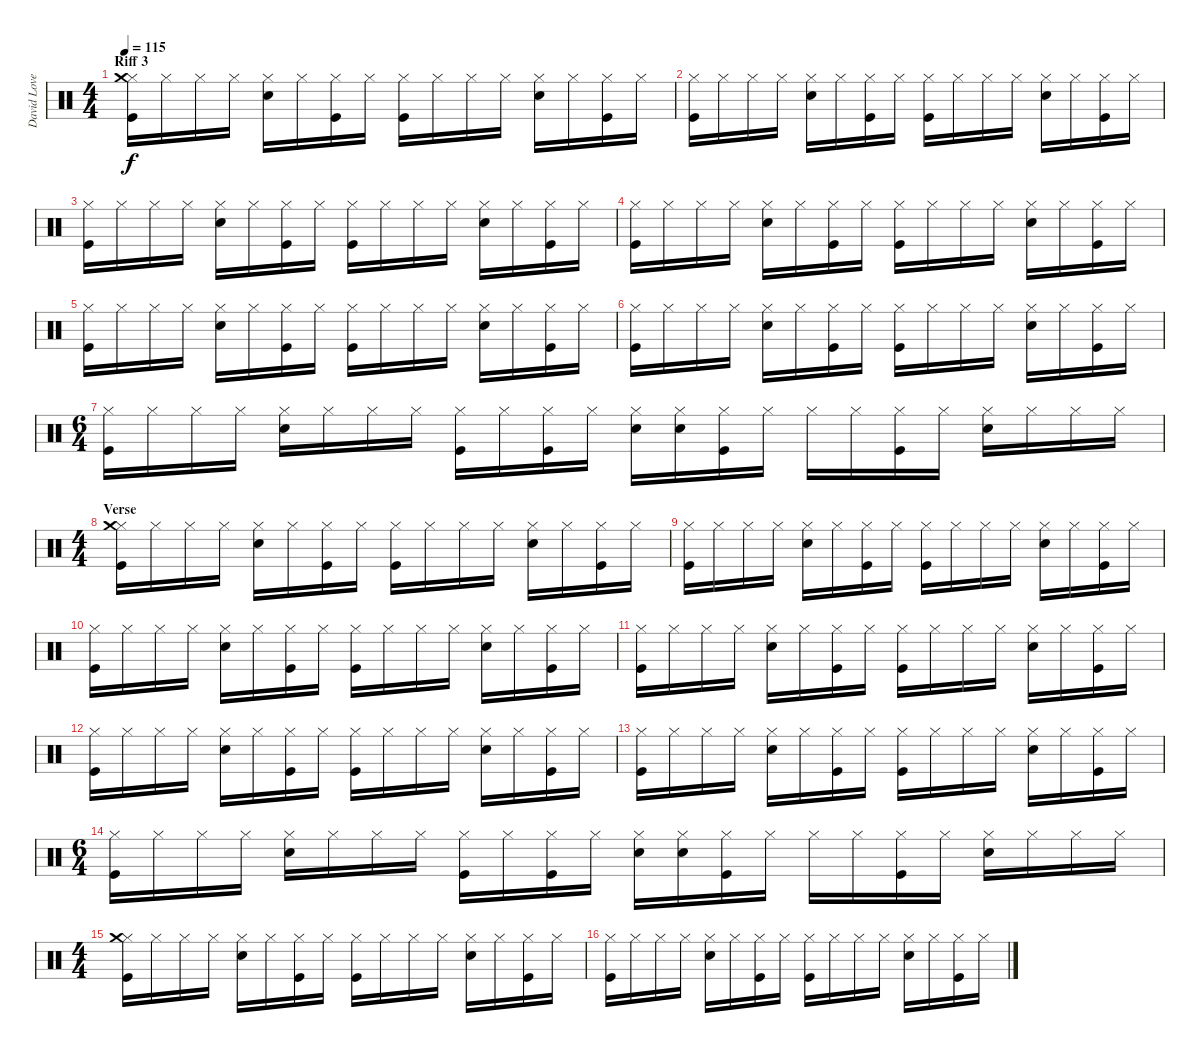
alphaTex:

\track ("David Lovering" "David Love") {instrument percussion}
\staff {score}
\articulation defaults
\ts (4 4)
\section ("" "Riff 3")
\tempo 115
\clef neutral
\ks c
("Hi-Hat (closed)" "Crash medium (hit)" "Kick (hit)").16{dy f} "Hi-Hat (closed)".16 "Hi-Hat (closed)".16 "Hi-Hat (closed)".16 ("Hi-Hat (closed)" "Snare (hit) 2").16 "Hi-Hat (closed)".16 ("Hi-Hat (closed)" "Kick (hit)").16 "Hi-Hat (closed)".16 ("Hi-Hat (closed)" "Kick (hit)").16 "Hi-Hat (closed)".16 "Hi-Hat (closed)".16 "Hi-Hat (closed)".16 ("Hi-Hat (closed)" "Snare (hit) 2").16 "Hi-Hat (closed)".16 ("Hi-Hat (closed)" "Kick (hit)").16 "Hi-Hat (closed)".16 |
("Hi-Hat (closed)" "Kick (hit)").16 "Hi-Hat (closed)".16 "Hi-Hat (closed)".16 "Hi-Hat (closed)".16 ("Hi-Hat (closed)" "Snare (hit) 2").16 "Hi-Hat (closed)".16 ("Hi-Hat (closed)" "Kick (hit)").16 "Hi-Hat (closed)".16 ("Hi-Hat (closed)" "Kick (hit)").16 "Hi-Hat (closed)".16 "Hi-Hat (closed)".16 "Hi-Hat (closed)".16 ("Hi-Hat (closed)" "Snare (hit) 2").16 "Hi-Hat (closed)".16 ("Hi-Hat (closed)" "Kick (hit)").16 "Hi-Hat (closed)".16 |
("Hi-Hat (closed)" "Kick (hit)").16 "Hi-Hat (closed)".16 "Hi-Hat (closed)".16 "Hi-Hat (closed)".16 ("Hi-Hat (closed)" "Snare (hit) 2").16 "Hi-Hat (closed)".16 ("Hi-Hat (closed)" "Kick (hit)").16 "Hi-Hat (closed)".16 ("Hi-Hat (closed)" "Kick (hit)").16 "Hi-Hat (closed)".16 "Hi-Hat (closed)".16 "Hi-Hat (closed)".16 ("Hi-Hat (closed)" "Snare (hit) 2").16 "Hi-Hat (closed)".16 ("Hi-Hat (closed)" "Kick (hit)").16 "Hi-Hat (closed)".16 |
("Hi-Hat (closed)" "Kick (hit)").16 "Hi-Hat (closed)".16 "Hi-Hat (closed)".16 "Hi-Hat (closed)".16 ("Hi-Hat (closed)" "Snare (hit) 2").16 "Hi-Hat (closed)".16 ("Hi-Hat (closed)" "Kick (hit)").16 "Hi-Hat (closed)".16 ("Hi-Hat (closed)" "Kick (hit)").16 "Hi-Hat (closed)".16 "Hi-Hat (closed)".16 "Hi-Hat (closed)".16 ("Hi-Hat (closed)" "Snare (hit) 2").16 "Hi-Hat (closed)".16 ("Hi-Hat (closed)" "Kick (hit)").16 "Hi-Hat (closed)".16 |
("Hi-Hat (closed)" "Kick (hit)").16 "Hi-Hat (closed)".16 "Hi-Hat (closed)".16 "Hi-Hat (closed)".16 ("Hi-Hat (closed)" "Snare (hit) 2").16 "Hi-Hat (closed)".16 ("Hi-Hat (closed)" "Kick (hit)").16 "Hi-Hat (closed)".16 ("Hi-Hat (closed)" "Kick (hit)").16 "Hi-Hat (closed)".16 "Hi-Hat (closed)".16 "Hi-Hat (closed)".16 ("Hi-Hat (closed)" "Snare (hit) 2").16 "Hi-Hat (closed)".16 ("Hi-Hat (closed)" "Kick (hit)").16 "Hi-Hat (closed)".16 |
("Hi-Hat (closed)" "Kick (hit)").16 "Hi-Hat (closed)".16 "Hi-Hat (closed)".16 "Hi-Hat (closed)".16 ("Hi-Hat (closed)" "Snare (hit) 2").16 "Hi-Hat (closed)".16 ("Hi-Hat (closed)" "Kick (hit)").16 "Hi-Hat (closed)".16 ("Hi-Hat (closed)" "Kick (hit)").16 "Hi-Hat (closed)".16 "Hi-Hat (closed)".16 "Hi-Hat (closed)".16 ("Hi-Hat (closed)" "Snare (hit) 2").16 "Hi-Hat (closed)".16 ("Hi-Hat (closed)" "Kick (hit)").16 "Hi-Hat (closed)".16 |
\ts (6 4)
("Hi-Hat (closed)" "Kick (hit)").16 "Hi-Hat (closed)".16 "Hi-Hat (closed)".16 "Hi-Hat (closed)".16 ("Hi-Hat (closed)" "Snare (hit) 2").16 "Hi-Hat (closed)".16 "Hi-Hat (closed)".16 "Hi-Hat (closed)".16 ("Hi-Hat (closed)" "Kick (hit)").16 "Hi-Hat (closed)".16 ("Hi-Hat (closed)" "Kick (hit)").16 "Hi-Hat (closed)".16 ("Hi-Hat (closed)" "Snare (hit) 2").16 ("Hi-Hat (closed)" "Snare (hit) 2").16 ("Hi-Hat (closed)" "Kick (hit)").16 "Hi-Hat (closed)".16 "Hi-Hat (closed)".16 "Hi-Hat (closed)".16 ("Hi-Hat (closed)" "Kick (hit)").16 "Hi-Hat (closed)".16 ("Hi-Hat (closed)" "Snare (hit) 2").16 "Hi-Hat (closed)".16 "Hi-Hat (closed)".16 "Hi-Hat (closed)".16 |
\ts (4 4)
\section ("" "Verse")
("Hi-Hat (closed)" "Crash medium (hit)" "Kick (hit)").16 "Hi-Hat (closed)".16 "Hi-Hat (closed)".16 "Hi-Hat (closed)".16 ("Hi-Hat (closed)" "Snare (hit) 2").16 "Hi-Hat (closed)".16 ("Hi-Hat (closed)" "Kick (hit)").16 "Hi-Hat (closed)".16 ("Hi-Hat (closed)" "Kick (hit)").16 "Hi-Hat (closed)".16 "Hi-Hat (closed)".16 "Hi-Hat (closed)".16 ("Hi-Hat (closed)" "Snare (hit) 2").16 "Hi-Hat (closed)".16 ("Hi-Hat (closed)" "Kick (hit)").16 "Hi-Hat (closed)".16 |
("Hi-Hat (closed)" "Kick (hit)").16 "Hi-Hat (closed)".16 "Hi-Hat (closed)".16 "Hi-Hat (closed)".16 ("Hi-Hat (closed)" "Snare (hit) 2").16 "Hi-Hat (closed)".16 ("Hi-Hat (closed)" "Kick (hit)").16 "Hi-Hat (closed)".16 ("Hi-Hat (closed)" "Kick (hit)").16 "Hi-Hat (closed)".16 "Hi-Hat (closed)".16 "Hi-Hat (closed)".16 ("Hi-Hat (closed)" "Snare (hit) 2").16 "Hi-Hat (closed)".16 ("Hi-Hat (closed)" "Kick (hit)").16 "Hi-Hat (closed)".16 |
("Hi-Hat (closed)" "Kick (hit)").16 "Hi-Hat (closed)".16 "Hi-Hat (closed)".16 "Hi-Hat (closed)".16 ("Hi-Hat (closed)" "Snare (hit) 2").16 "Hi-Hat (closed)".16 ("Hi-Hat (closed)" "Kick (hit)").16 "Hi-Hat (closed)".16 ("Hi-Hat (closed)" "Kick (hit)").16 "Hi-Hat (closed)".16 "Hi-Hat (closed)".16 "Hi-Hat (closed)".16 ("Hi-Hat (closed)" "Snare (hit) 2").16 "Hi-Hat (closed)".16 ("Hi-Hat (closed)" "Kick (hit)").16 "Hi-Hat (closed)".16 |
("Hi-Hat (closed)" "Kick (hit)").16 "Hi-Hat (closed)".16 "Hi-Hat (closed)".16 "Hi-Hat (closed)".16 ("Hi-Hat (closed)" "Snare (hit) 2").16 "Hi-Hat (closed)".16 ("Hi-Hat (closed)" "Kick (hit)").16 "Hi-Hat (closed)".16 ("Hi-Hat (closed)" "Kick (hit)").16 "Hi-Hat (closed)".16 "Hi-Hat (closed)".16 "Hi-Hat (closed)".16 ("Hi-Hat (closed)" "Snare (hit) 2").16 "Hi-Hat (closed)".16 ("Hi-Hat (closed)" "Kick (hit)").16 "Hi-Hat (closed)".16 |
("Hi-Hat (closed)" "Kick (hit)").16 "Hi-Hat (closed)".16 "Hi-Hat (closed)".16 "Hi-Hat (closed)".16 ("Hi-Hat (closed)" "Snare (hit) 2").16 "Hi-Hat (closed)".16 ("Hi-Hat (closed)" "Kick (hit)").16 "Hi-Hat (closed)".16 ("Hi-Hat (closed)" "Kick (hit)").16 "Hi-Hat (closed)".16 "Hi-Hat (closed)".16 "Hi-Hat (closed)".16 ("Hi-Hat (closed)" "Snare (hit) 2").16 "Hi-Hat (closed)".16 ("Hi-Hat (closed)" "Kick (hit)").16 "Hi-Hat (closed)".16 |
("Hi-Hat (closed)" "Kick (hit)").16 "Hi-Hat (closed)".16 "Hi-Hat (closed)".16 "Hi-Hat (closed)".16 ("Hi-Hat (closed)" "Snare (hit) 2").16 "Hi-Hat (closed)".16 ("Hi-Hat (closed)" "Kick (hit)").16 "Hi-Hat (closed)".16 ("Hi-Hat (closed)" "Kick (hit)").16 "Hi-Hat (closed)".16 "Hi-Hat (closed)".16 "Hi-Hat (closed)".16 ("Hi-Hat (closed)" "Snare (hit) 2").16 "Hi-Hat (closed)".16 ("Hi-Hat (closed)" "Kick (hit)").16 "Hi-Hat (closed)".16 |
\ts (6 4)
("Hi-Hat (closed)" "Kick (hit)").16 "Hi-Hat (closed)".16 "Hi-Hat (closed)".16 "Hi-Hat (closed)".16 ("Hi-Hat (closed)" "Snare (hit) 2").16 "Hi-Hat (closed)".16 "Hi-Hat (closed)".16 "Hi-Hat (closed)".16 ("Hi-Hat (closed)" "Kick (hit)").16 "Hi-Hat (closed)".16 ("Hi-Hat (closed)" "Kick (hit)").16 "Hi-Hat (closed)".16 ("Hi-Hat (closed)" "Snare (hit) 2").16 ("Hi-Hat (closed)" "Snare (hit) 2").16 ("Hi-Hat (closed)" "Kick (hit)").16 "Hi-Hat (closed)".16 "Hi-Hat (closed)".16 "Hi-Hat (closed)".16 ("Hi-Hat (closed)" "Kick (hit)").16 "Hi-Hat (closed)".16 ("Hi-Hat (closed)" "Snare (hit) 2").16 "Hi-Hat (closed)".16 "Hi-Hat (closed)".16 "Hi-Hat (closed)".16 |
\ts (4 4)
("Hi-Hat (closed)" "Crash medium (hit)" "Kick (hit)").16 "Hi-Hat (closed)".16 "Hi-Hat (closed)".16 "Hi-Hat (closed)".16 ("Hi-Hat (closed)" "Snare (hit) 2").16 "Hi-Hat (closed)".16 ("Hi-Hat (closed)" "Kick (hit)").16 "Hi-Hat (closed)".16 ("Hi-Hat (closed)" "Kick (hit)").16 "Hi-Hat (closed)".16 "Hi-Hat (closed)".16 "Hi-Hat (closed)".16 ("Hi-Hat (closed)" "Snare (hit) 2").16 "Hi-Hat (closed)".16 ("Hi-Hat (closed)" "Kick (hit)").16 "Hi-Hat (closed)".16 |
("Hi-Hat (closed)" "Kick (hit)").16 "Hi-Hat (closed)".16 "Hi-Hat (closed)".16 "Hi-Hat (closed)".16 ("Hi-Hat (closed)" "Snare (hit) 2").16 "Hi-Hat (closed)".16 ("Hi-Hat (closed)" "Kick (hit)").16 "Hi-Hat (closed)".16 ("Hi-Hat (closed)" "Kick (hit)").16 "Hi-Hat (closed)".16 "Hi-Hat (closed)".16 "Hi-Hat (closed)".16 ("Hi-Hat (closed)" "Snare (hit) 2").16 "Hi-Hat (closed)".16 ("Hi-Hat (closed)" "Kick (hit)").16 "Hi-Hat (closed)".16
